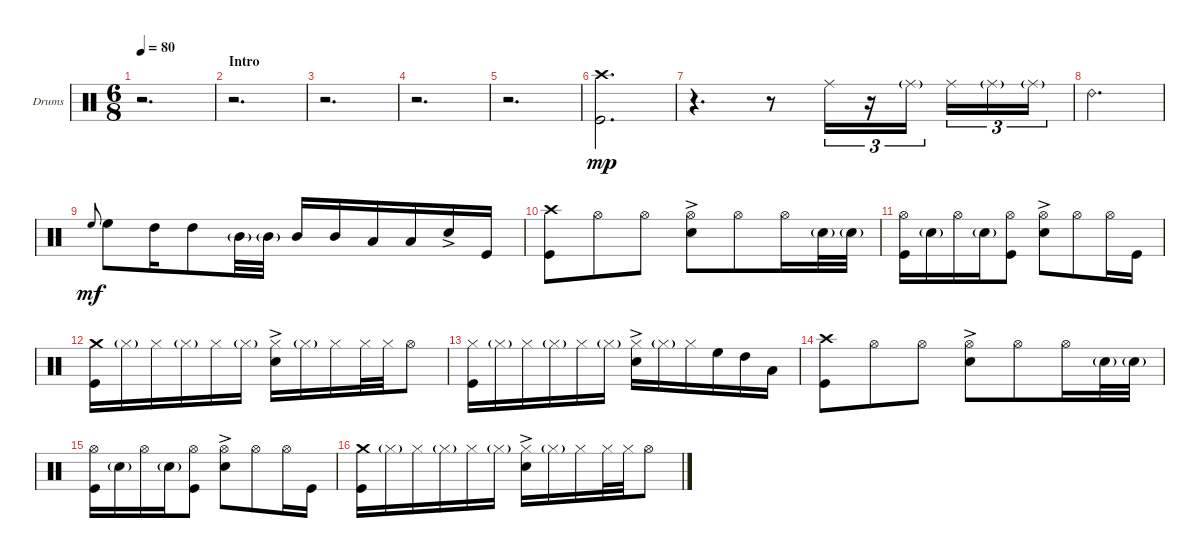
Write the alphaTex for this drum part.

\bracketExtendMode groupsimilarinstruments
\firstSystemTrackNameOrientation horizontal
\otherSystemsTrackNameOrientation horizontal
\track ("Drumkit" "Drums") {instrument percussion}
\staff {score}
\articulation defaults
\ts (6 8)
\tempo 80
\clef neutral
\ks c
r.2{d dy mp} |
\section ("" "Intro")
r.2{d} |
r.2{d} |
r.2{d} |
r.2{d} |
("Kick (hit)" "Crash high (hit)").2{d} |
r.4{d} r.8 "Ride (middle)".16{tu (3 2)} r.16{tu (3 2)} "Ride (middle)"{g}.16{tu (3 2)} "Ride (middle)".16{tu (3 2)} "Ride (middle)"{g}.16{tu (3 2)} "Ride (middle)"{g}.16{tu (3 2)} |
"Ride (bell) 2".2{d} |
"High Floor Tom (hit)".8{gr onbeat dy mf} "High Floor Tom (hit)".8 "High Tom (hit)".16 "High Tom (hit)".8 "Mid Tom (hit)"{g}.32 "Mid Tom (hit)"{g}.32 "Mid Tom (hit)".16 "Mid Tom (hit)".16 "Low Tom (hit)".16 "Low Tom (hit)".16 "Snare (hit) 2"{ac}.16 "Kick (hit)".16 |
("Kick (hit)" "Crash high (hit)").8 "Hi-Hat (open)".8 "Hi-Hat (open)".8 ("Hi-Hat (open)" "Snare (hit) 2"{ac}).8 "Hi-Hat (open)".8 "Hi-Hat (open)".16 "Snare (hit) 2"{g}.32 "Snare (hit) 2"{g}.32 |
("Kick (hit)" "Hi-Hat (open)").16 "Snare (hit) 2"{g}.16 "Hi-Hat (open)".16 "Snare (hit) 2"{g}.16 ("Kick (hit)" "Hi-Hat (open)").8 ("Snare (hit) 2"{ac} "Hi-Hat (open)").8 "Hi-Hat (open)".8 "Hi-Hat (open)".16 "Kick (hit)".16 |
("Kick (hit)" "Crash medium (hit)").16 "Hi-Hat (closed)"{g}.16 "Hi-Hat (closed)".16 "Hi-Hat (closed)"{g}.16 "Hi-Hat (closed)".16 "Hi-Hat (closed)"{g}.16 ("Hi-Hat (closed)" "Snare (hit) 2"{ac}).16 "Hi-Hat (closed)"{g}.16 "Hi-Hat (closed)".16 "Hi-Hat (closed)".32 "Hi-Hat (closed)".32 "Hi-Hat (open)".8 |
("Kick (hit)" "Hi-Hat (closed)").16 "Hi-Hat (closed)"{g}.16 "Hi-Hat (closed)".16 "Hi-Hat (closed)"{g}.16 "Hi-Hat (closed)".16 "Hi-Hat (closed)"{g}.16 ("Hi-Hat (closed)" "Snare (hit) 2"{ac}).16 "Hi-Hat (closed)"{g}.16 "Hi-Hat (closed)".16 "High Floor Tom (hit)".16 "High Tom (hit)".16 "Low Tom (hit)".16 |
("Kick (hit)" "Crash high (hit)").8 "Hi-Hat (open)".8 "Hi-Hat (open)".8 ("Hi-Hat (open)" "Snare (hit) 2"{ac}).8 "Hi-Hat (open)".8 "Hi-Hat (open)".16 "Snare (hit) 2"{g}.32 "Snare (hit) 2"{g}.32 |
("Kick (hit)" "Hi-Hat (open)").16 "Snare (hit) 2"{g}.16 "Hi-Hat (open)".16 "Snare (hit) 2"{g}.16 ("Kick (hit)" "Hi-Hat (open)").8 ("Snare (hit) 2"{ac} "Hi-Hat (open)").8 "Hi-Hat (open)".8 "Hi-Hat (open)".16 "Kick (hit)".16 |
("Kick (hit)" "Crash medium (hit)").16 "Hi-Hat (closed)"{g}.16 "Hi-Hat (closed)".16 "Hi-Hat (closed)"{g}.16 "Hi-Hat (closed)".16 "Hi-Hat (closed)"{g}.16 ("Hi-Hat (closed)" "Snare (hit) 2"{ac}).16 "Hi-Hat (closed)"{g}.16 "Hi-Hat (closed)".16 "Hi-Hat (closed)".32 "Hi-Hat (closed)".32 "Hi-Hat (open)".8
